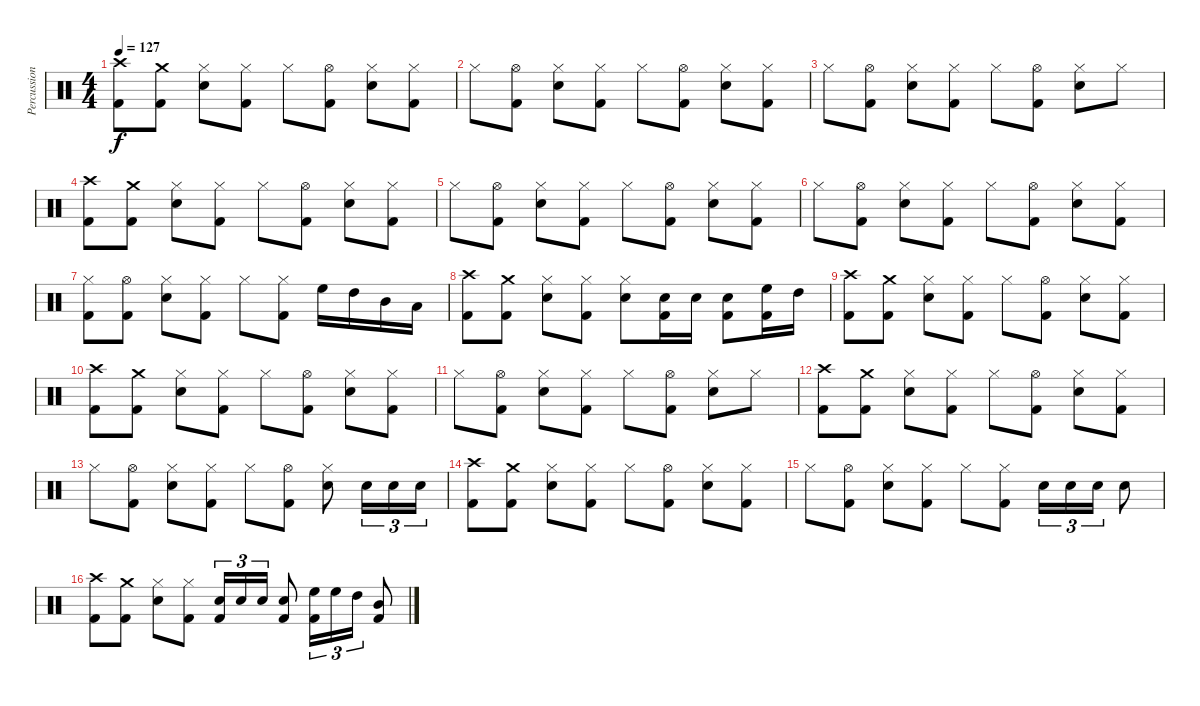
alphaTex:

\track ("Percussion" "Percussion") {instrument percussion}
\staff {score}
\articulation defaults
\ts (4 4)
\tempo 127
\clef neutral
\ks c
("Kick (hit) 2" "Crash high (hit)").8{dy f} ("Kick (hit) 2" "Crash medium (hit)").8 ("Snare (hit) 2" "Hi-Hat (closed)").8 ("Kick (hit) 2" "Hi-Hat (closed)").8 "Hi-Hat (closed)".8 ("Kick (hit) 2" "Hi-Hat (open)").8 ("Snare (hit) 2" "Hi-Hat (closed)").8 ("Kick (hit) 2" "Hi-Hat (closed)").8 |
"Hi-Hat (closed)".8 ("Kick (hit) 2" "Hi-Hat (open)").8 ("Snare (hit) 2" "Hi-Hat (closed)").8 ("Kick (hit) 2" "Hi-Hat (closed)").8 "Hi-Hat (closed)".8 ("Kick (hit) 2" "Hi-Hat (open)").8 ("Snare (hit) 2" "Hi-Hat (closed)").8 ("Kick (hit) 2" "Hi-Hat (closed)").8 |
"Hi-Hat (closed)".8 ("Kick (hit) 2" "Hi-Hat (open)").8 ("Snare (hit) 2" "Hi-Hat (closed)").8 ("Kick (hit) 2" "Hi-Hat (closed)").8 "Hi-Hat (closed)".8 ("Kick (hit) 2" "Hi-Hat (open)").8 ("Snare (hit) 2" "Hi-Hat (closed)").8 "Hi-Hat (closed)".8 |
("Kick (hit) 2" "Crash high (hit)").8 ("Kick (hit) 2" "Crash medium (hit)").8 ("Snare (hit) 2" "Hi-Hat (closed)").8 ("Kick (hit) 2" "Hi-Hat (closed)").8 "Hi-Hat (closed)".8 ("Kick (hit) 2" "Hi-Hat (open)").8 ("Snare (hit) 2" "Hi-Hat (closed)").8 ("Kick (hit) 2" "Hi-Hat (closed)").8 |
"Hi-Hat (closed)".8 ("Kick (hit) 2" "Hi-Hat (open)").8 ("Snare (hit) 2" "Hi-Hat (closed)").8 ("Kick (hit) 2" "Hi-Hat (closed)").8 "Hi-Hat (closed)".8 ("Kick (hit) 2" "Hi-Hat (open)").8 ("Snare (hit) 2" "Hi-Hat (closed)").8 ("Kick (hit) 2" "Hi-Hat (closed)").8 |
"Hi-Hat (closed)".8 ("Kick (hit) 2" "Hi-Hat (open)").8 ("Snare (hit) 2" "Hi-Hat (closed)").8 ("Kick (hit) 2" "Hi-Hat (closed)").8 "Hi-Hat (closed)".8 ("Kick (hit) 2" "Hi-Hat (open)").8 ("Snare (hit) 2" "Hi-Hat (closed)").8 ("Kick (hit) 2" "Hi-Hat (closed)").8 |
("Kick (hit) 2" "Hi-Hat (closed)").8 ("Kick (hit) 2" "Hi-Hat (open)").8 ("Snare (hit) 2" "Hi-Hat (closed)").8 ("Kick (hit) 2" "Hi-Hat (closed)").8 "Hi-Hat (closed)".8 ("Kick (hit) 2" "Hi-Hat (closed)").8 "High Floor Tom (hit)".16 "High Tom (hit)".16 "Mid Tom (hit)".16 "Low Tom (hit)".16 |
("Kick (hit) 2" "Crash high (hit)").8 ("Kick (hit) 2" "Crash medium (hit)").8 ("Snare (hit) 2" "Hi-Hat (closed)").8 ("Kick (hit) 2" "Hi-Hat (closed)").8 ("Snare (hit) 2" "Hi-Hat (closed)").8 ("Snare (hit) 2" "Kick (hit) 2").16 "Snare (hit) 2".16 ("Snare (hit) 2" "Kick (hit) 2").8 ("High Floor Tom (hit)" "Kick (hit) 2").16 "High Tom (hit)".16 |
("Kick (hit) 2" "Crash high (hit)").8 ("Kick (hit) 2" "Crash medium (hit)").8 ("Snare (hit) 2" "Hi-Hat (closed)").8 ("Kick (hit) 2" "Hi-Hat (closed)").8 "Hi-Hat (closed)".8 ("Kick (hit) 2" "Hi-Hat (open)").8 ("Snare (hit) 2" "Hi-Hat (closed)").8 ("Kick (hit) 2" "Hi-Hat (closed)").8 |
("Kick (hit) 2" "Crash high (hit)").8 ("Kick (hit) 2" "Crash medium (hit)").8 ("Snare (hit) 2" "Hi-Hat (closed)").8 ("Kick (hit) 2" "Hi-Hat (closed)").8 "Hi-Hat (closed)".8 ("Kick (hit) 2" "Hi-Hat (open)").8 ("Snare (hit) 2" "Hi-Hat (closed)").8 ("Kick (hit) 2" "Hi-Hat (closed)").8 |
"Hi-Hat (closed)".8 ("Kick (hit) 2" "Hi-Hat (open)").8 ("Snare (hit) 2" "Hi-Hat (closed)").8 ("Kick (hit) 2" "Hi-Hat (closed)").8 "Hi-Hat (closed)".8 ("Kick (hit) 2" "Hi-Hat (open)").8 ("Snare (hit) 2" "Hi-Hat (closed)").8 "Hi-Hat (closed)".8 |
("Kick (hit) 2" "Crash high (hit)").8 ("Kick (hit) 2" "Crash medium (hit)").8 ("Snare (hit) 2" "Hi-Hat (closed)").8 ("Kick (hit) 2" "Hi-Hat (closed)").8 "Hi-Hat (closed)".8 ("Kick (hit) 2" "Hi-Hat (open)").8 ("Snare (hit) 2" "Hi-Hat (closed)").8 ("Kick (hit) 2" "Hi-Hat (closed)").8 |
"Hi-Hat (closed)".8 ("Kick (hit) 2" "Hi-Hat (open)").8 ("Snare (hit) 2" "Hi-Hat (closed)").8 ("Kick (hit) 2" "Hi-Hat (closed)").8 "Hi-Hat (closed)".8 ("Kick (hit) 2" "Hi-Hat (open)").8 ("Snare (hit) 2" "Hi-Hat (closed)").8 "Snare (hit) 2".16{tu (3 2)} "Snare (hit) 2".16{tu (3 2)} "Snare (hit) 2".16{tu (3 2)} |
("Kick (hit) 2" "Crash high (hit)").8 ("Kick (hit) 2" "Crash medium (hit)").8 ("Snare (hit) 2" "Hi-Hat (closed)").8 ("Kick (hit) 2" "Hi-Hat (closed)").8 "Hi-Hat (closed)".8 ("Kick (hit) 2" "Hi-Hat (open)").8 ("Snare (hit) 2" "Hi-Hat (closed)").8 ("Kick (hit) 2" "Hi-Hat (closed)").8 |
"Hi-Hat (closed)".8 ("Kick (hit) 2" "Hi-Hat (open)").8 ("Snare (hit) 2" "Hi-Hat (closed)").8 ("Kick (hit) 2" "Hi-Hat (closed)").8 "Hi-Hat (closed)".8 ("Kick (hit) 2" "Hi-Hat (closed)").8 "Snare (hit) 2".16{tu (3 2)} "Snare (hit) 2".16{tu (3 2)} "Snare (hit) 2".16{tu (3 2)} "Snare (hit) 2".8 |
("Kick (hit) 2" "Crash high (hit)").8 ("Kick (hit) 2" "Crash medium (hit)").8 ("Snare (hit) 2" "Hi-Hat (closed)").8 ("Kick (hit) 2" "Hi-Hat (closed)").8 ("Snare (hit) 2" "Kick (hit) 2").16{tu (3 2)} "Snare (hit) 2".16{tu (3 2)} "Snare (hit) 2".16{tu (3 2)} ("Snare (hit) 2" "Kick (hit) 2").8 ("Kick (hit) 2" "High Floor Tom (hit)").16{tu (3 2)} "High Floor Tom (hit)".16{tu (3 2)} "High Tom (hit)".16{tu (3 2)} ("Kick (hit) 2" "Mid Tom (hit)").8
